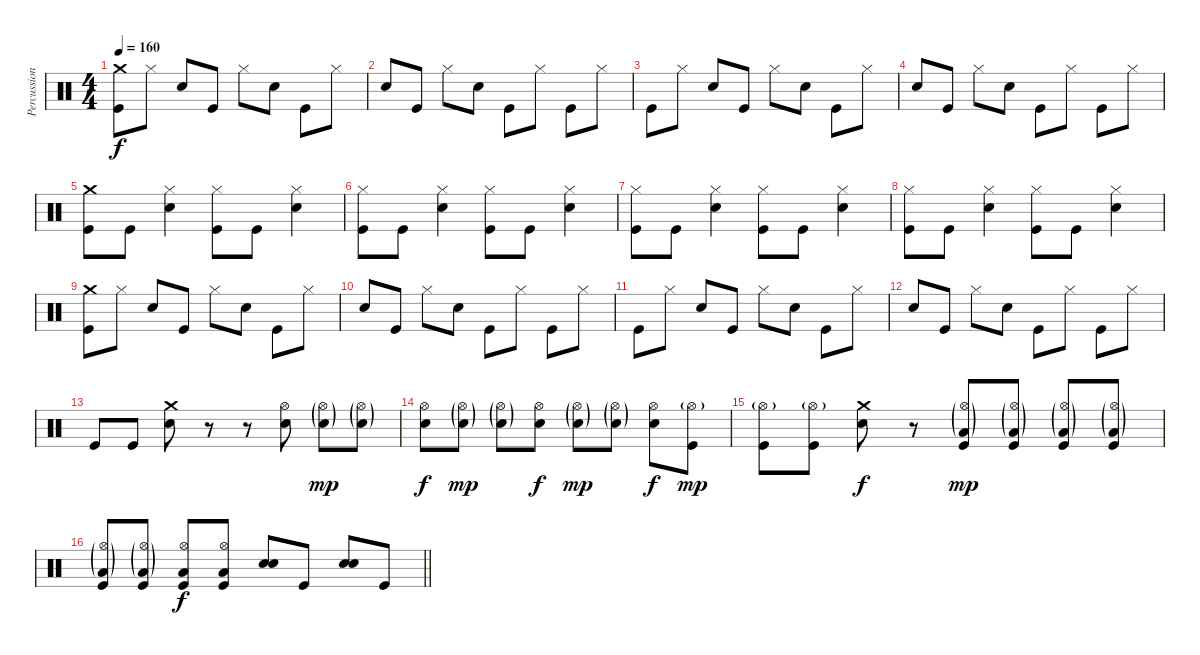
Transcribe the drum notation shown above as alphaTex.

\track ("Percussion" "Percussion") {instrument percussion}
\staff {score}
\articulation defaults
\ts (4 4)
\tempo 160
\clef neutral
\ks c
("Crash medium (hit)" "Kick (hit)").8{dy f} "Hi-Hat (closed)".8 "Snare (hit) 2".8 "Kick (hit)".8 "Hi-Hat (closed)".8 "Snare (hit) 2".8 "Kick (hit)".8 "Hi-Hat (closed)".8 |
"Snare (hit) 2".8 "Kick (hit)".8 "Hi-Hat (closed)".8 "Snare (hit) 2".8 "Kick (hit)".8 "Hi-Hat (closed)".8 "Kick (hit)".8 "Hi-Hat (closed)".8 |
"Kick (hit)".8 "Hi-Hat (closed)".8 "Snare (hit) 2".8 "Kick (hit)".8 "Hi-Hat (closed)".8 "Snare (hit) 2".8 "Kick (hit)".8 "Hi-Hat (closed)".8 |
"Snare (hit) 2".8 "Kick (hit)".8 "Hi-Hat (closed)".8 "Snare (hit) 2".8 "Kick (hit)".8 "Hi-Hat (closed)".8 "Kick (hit)".8 "Hi-Hat (closed)".8 |
("Crash medium (hit)" "Kick (hit)").8 "Kick (hit)".8 ("Hi-Hat (closed)" "Snare (hit) 2").4 ("Hi-Hat (closed)" "Kick (hit)").8 "Kick (hit)".8 ("Hi-Hat (closed)" "Snare (hit) 2").4 |
("Hi-Hat (closed)" "Kick (hit)").8 "Kick (hit)".8 ("Hi-Hat (closed)" "Snare (hit) 2").4 ("Hi-Hat (closed)" "Kick (hit)").8 "Kick (hit)".8 ("Hi-Hat (closed)" "Snare (hit) 2").4 |
("Hi-Hat (closed)" "Kick (hit)").8 "Kick (hit)".8 ("Hi-Hat (closed)" "Snare (hit) 2").4 ("Hi-Hat (closed)" "Kick (hit)").8 "Kick (hit)".8 ("Hi-Hat (closed)" "Snare (hit) 2").4 |
("Hi-Hat (closed)" "Kick (hit)").8 "Kick (hit)".8 ("Hi-Hat (closed)" "Snare (hit) 2").4 ("Hi-Hat (closed)" "Kick (hit)").8 "Kick (hit)".8 ("Hi-Hat (closed)" "Snare (hit) 2").4 |
("Crash medium (hit)" "Kick (hit)").8 "Hi-Hat (closed)".8 "Snare (hit) 2".8 "Kick (hit)".8 "Hi-Hat (closed)".8 "Snare (hit) 2".8 "Kick (hit)".8 "Hi-Hat (closed)".8 |
"Snare (hit) 2".8 "Kick (hit)".8 "Hi-Hat (closed)".8 "Snare (hit) 2".8 "Kick (hit)".8 "Hi-Hat (closed)".8 "Kick (hit)".8 "Hi-Hat (closed)".8 |
"Kick (hit)".8 "Hi-Hat (closed)".8 "Snare (hit) 2".8 "Kick (hit)".8 "Hi-Hat (closed)".8 "Snare (hit) 2".8 "Kick (hit)".8 "Hi-Hat (closed)".8 |
"Snare (hit) 2".8 "Kick (hit)".8 "Hi-Hat (closed)".8 "Snare (hit) 2".8 "Kick (hit)".8 "Hi-Hat (closed)".8 "Kick (hit)".8 "Hi-Hat (closed)".8 |
"Kick (hit)".8 "Kick (hit)".8 ("Crash medium (hit)" "Snare (hit) 2").8 r.8 r.8 ("Hi-Hat (open)" "Snare (hit) 2").8 ("Hi-Hat (open)"{g} "Snare (hit) 2"{g}).8{dy mp} ("Hi-Hat (open)"{g} "Snare (hit) 2"{g}).8 |
("Hi-Hat (open)" "Snare (hit) 2").8{dy f} ("Hi-Hat (open)"{g} "Snare (hit) 2"{g}).8{dy mp} ("Hi-Hat (open)"{g} "Snare (hit) 2"{g}).8 ("Hi-Hat (open)" "Snare (hit) 2").8{dy f} ("Hi-Hat (open)"{g} "Snare (hit) 2"{g}).8{dy mp} ("Hi-Hat (open)"{g} "Snare (hit) 2"{g}).8 ("Hi-Hat (open)" "Snare (hit) 2").8{dy f} ("Hi-Hat (open)"{g} "Kick (hit)").8{dy mp} |
("Hi-Hat (open)"{g} "Kick (hit)").8 ("Hi-Hat (open)"{g} "Kick (hit)").8 ("Crash medium (hit)" "Snare (hit) 2").8{dy f} r.8 ("Hi-Hat (open)"{g} "Low Floor Tom (hit)"{g} "Kick (hit)").8{dy mp} ("Hi-Hat (open)"{g} "Low Floor Tom (hit)"{g} "Kick (hit)").8 ("Hi-Hat (open)"{g} "Low Floor Tom (hit)"{g} "Kick (hit)").8 ("Hi-Hat (open)"{g} "Low Floor Tom (hit)"{g} "Kick (hit)").8 |
\barLineRight lightlight
("Hi-Hat (open)"{g} "Low Floor Tom (hit)"{g} "Kick (hit)").8 ("Hi-Hat (open)"{g} "Low Floor Tom (hit)"{g} "Kick (hit)").8 ("Hi-Hat (open)" "Low Floor Tom (hit)" "Kick (hit)").8{dy f} ("Hi-Hat (open)" "Low Floor Tom (hit)" "Kick (hit)").8 ("Snare (hit) 2" "Snare (hit) 2").8{bd 60} "Kick (hit)".8 ("Snare (hit) 2" "Snare (hit) 2").8{bd 60} "Kick (hit)".8
